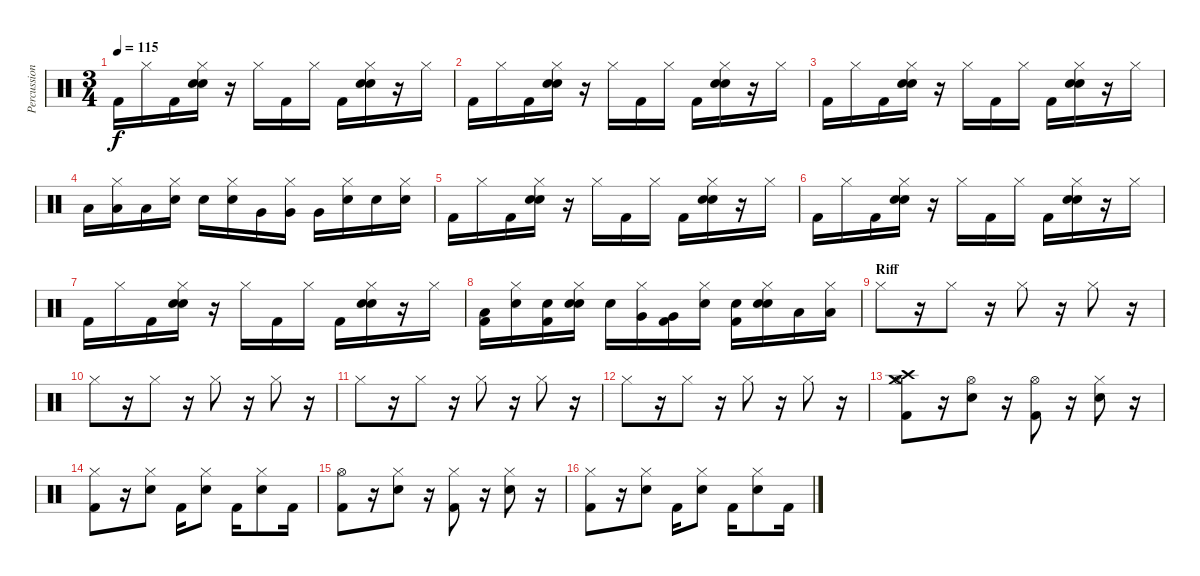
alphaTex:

\track ("Percussion" "Percussion") {instrument percussion}
\staff {score}
\articulation defaults
\ts (3 4)
\tempo 115
\clef neutral
\ks c "Kick (hit) 2".16{dy f} "Hi-Hat (closed)".16 "Kick (hit) 2".16
("Hi-Hat (closed)" "Snare (hit) 2" "Snare (hit) 2").16 r.16 "Hi-Hat (closed)".16 "Kick (hit) 2".16 "Hi-Hat (closed)".16 "Kick (hit) 2".16 ("Hi-Hat (closed)" "Snare (hit) 2" "Snare (hit) 2").16 r.16 "Hi-Hat (closed)".16 |
"Kick (hit) 2".16 "Hi-Hat (closed)".16 "Kick (hit) 2".16 ("Hi-Hat (closed)" "Snare (hit) 2" "Snare (hit) 2").16 r.16 "Hi-Hat (closed)".16 "Kick (hit) 2".16 "Hi-Hat (closed)".16 "Kick (hit) 2".16 ("Hi-Hat (closed)" "Snare (hit) 2" "Snare (hit) 2").16 r.16 "Hi-Hat (closed)".16 |
"Kick (hit) 2".16 "Hi-Hat (closed)".16 "Kick (hit) 2".16 ("Hi-Hat (closed)" "Snare (hit) 2" "Snare (hit) 2").16 r.16 "Hi-Hat (closed)".16 "Kick (hit) 2".16 "Hi-Hat (closed)".16 "Kick (hit) 2".16 ("Hi-Hat (closed)" "Snare (hit) 2" "Snare (hit) 2").16 r.16 "Hi-Hat (closed)".16 |
"Low Tom (hit)".16 ("Hi-Hat (closed)" "Low Tom (hit)").16 "Low Tom (hit)".16 ("Hi-Hat (closed)" "Snare (hit) 2").16 "Snare (hit) 2".16 ("Hi-Hat (closed)" "Snare (hit) 2").16 "Very Low Tom (hit)".16 ("Hi-Hat (closed)" "Very Low Tom (hit)").16 "Very Low Tom (hit)".16 ("Hi-Hat (closed)" "Snare (hit) 2").16 "Snare (hit) 2".16 ("Hi-Hat (closed)" "Snare (hit) 2").16 |
"Kick (hit) 2".16 "Hi-Hat (closed)".16 "Kick (hit) 2".16 ("Hi-Hat (closed)" "Snare (hit) 2" "Snare (hit) 2").16 r.16 "Hi-Hat (closed)".16 "Kick (hit) 2".16 "Hi-Hat (closed)".16 "Kick (hit) 2".16 ("Hi-Hat (closed)" "Snare (hit) 2" "Snare (hit) 2").16 r.16 "Hi-Hat (closed)".16 |
"Kick (hit) 2".16 "Hi-Hat (closed)".16 "Kick (hit) 2".16 ("Hi-Hat (closed)" "Snare (hit) 2" "Snare (hit) 2").16 r.16 "Hi-Hat (closed)".16 "Kick (hit) 2".16 "Hi-Hat (closed)".16 "Kick (hit) 2".16 ("Hi-Hat (closed)" "Snare (hit) 2" "Snare (hit) 2").16 r.16 "Hi-Hat (closed)".16 |
"Kick (hit) 2".16 "Hi-Hat (closed)".16 "Kick (hit) 2".16 ("Hi-Hat (closed)" "Snare (hit) 2" "Snare (hit) 2").16 r.16 "Hi-Hat (closed)".16 "Kick (hit) 2".16 "Hi-Hat (closed)".16 "Kick (hit) 2".16 ("Hi-Hat (closed)" "Snare (hit) 2" "Snare (hit) 2").16 r.16 "Hi-Hat (closed)".16 |
("Low Tom (hit)" "Kick (hit) 2").16 ("Hi-Hat (closed)" "Snare (hit) 2").16 ("Snare (hit) 2" "Kick (hit) 2").16 ("Hi-Hat (closed)" "Snare (hit) 2" "Snare (hit) 2").16 "Snare (hit) 2".16 ("Hi-Hat (closed)" "Very Low Tom (hit)").16 ("Very Low Tom (hit)" "Kick (hit) 2").16 ("Hi-Hat (closed)" "Snare (hit) 2").16 ("Snare (hit) 2" "Kick (hit) 2").16 ("Hi-Hat (closed)" "Snare (hit) 2" "Snare (hit) 2").16 "Low Tom (hit)".16 ("Hi-Hat (closed)" "Low Tom (hit)").16 |
\section ("" "Riff")
"Hi-Hat (closed)".8 r.16 "Hi-Hat (closed)".8 r.16 "Hi-Hat (closed)".8 r.16 "Hi-Hat (closed)".8 r.16 |
"Hi-Hat (closed)".8 r.16 "Hi-Hat (closed)".8 r.16 "Hi-Hat (closed)".8 r.16 "Hi-Hat (closed)".8 r.16 |
"Hi-Hat (closed)".8 r.16 "Hi-Hat (closed)".8 r.16 "Hi-Hat (closed)".8 r.16 "Hi-Hat (closed)".8 r.16 |
"Hi-Hat (closed)".8 r.16 "Hi-Hat (closed)".8 r.16 "Hi-Hat (closed)".8 r.16 "Hi-Hat (closed)".8 r.16 |
("Hi-Hat (open)" "Crash medium (hit)" "Crash high (hit)" "Kick (hit) 2").8 r.16 ("Hi-Hat (open)" "Snare (hit) 2").8 r.16 ("Hi-Hat (open)" "Kick (hit) 2").8 r.16 ("Hi-Hat (closed)" "Snare (hit) 2").8 r.16 |
("Hi-Hat (closed)" "Kick (hit) 2").8 r.16 ("Hi-Hat (closed)" "Snare (hit) 2").8 "Kick (hit) 2".16 ("Hi-Hat (closed)" "Snare (hit) 2").8 "Kick (hit) 2".16 ("Hi-Hat (closed)" "Snare (hit) 2").8 "Kick (hit) 2".16 |
("Hi-Hat (open)" "Kick (hit) 2").8 r.16 ("Hi-Hat (closed)" "Snare (hit) 2").8 r.16 ("Hi-Hat (closed)" "Kick (hit) 2").8 r.16 ("Hi-Hat (closed)" "Snare (hit) 2").8 r.16 |
("Hi-Hat (closed)" "Kick (hit) 2").8 r.16 ("Hi-Hat (closed)" "Snare (hit) 2").8 "Kick (hit) 2".16 ("Hi-Hat (closed)" "Snare (hit) 2").8 "Kick (hit) 2".16 ("Hi-Hat (closed)" "Snare (hit) 2").8 "Kick (hit) 2".16
